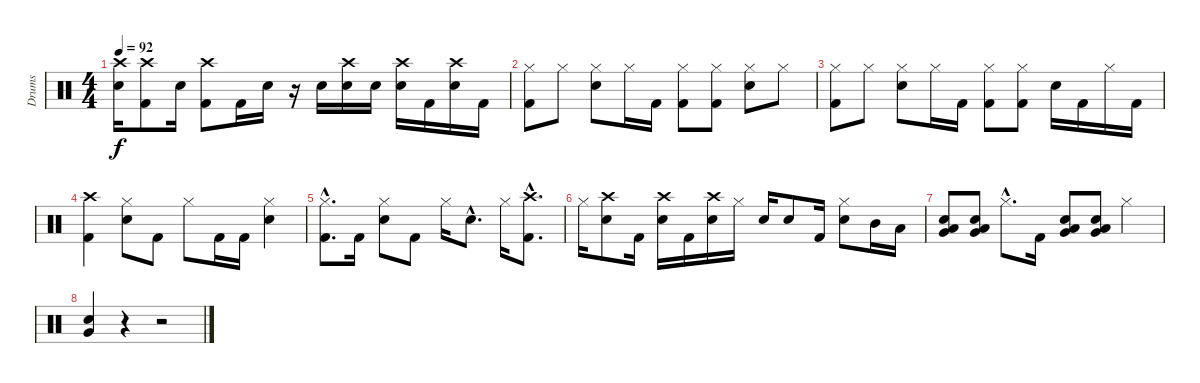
\track ("Drums" "Drums") {instrument percussion}
\staff {score}
\articulation defaults
\ts (4 4)
\tempo 92
\clef neutral
\ks c
("Crash high (hit)" "Electric Snare (hit)").16{dy f} ("Crash high (hit)" "Kick (hit) 2").8 "Electric Snare (hit)".16 ("Crash high (hit)" "Kick (hit) 2").8 "Kick (hit) 2".16 "Electric Snare (hit)".16 r.16 "Electric Snare (hit)".16 ("Crash high (hit)" "Electric Snare (hit)").16 "Electric Snare (hit)".16 ("Crash high (hit)" "Electric Snare (hit)").16 "Kick (hit) 2".16 ("Crash high (hit)" "Electric Snare (hit)").16 "Kick (hit) 2".16 |
("Hi-Hat (closed)" "Kick (hit) 2").8 "Hi-Hat (closed)".8 ("Hi-Hat (closed)" "Electric Snare (hit)").8 "Hi-Hat (closed)".16 "Kick (hit) 2".16 ("Hi-Hat (closed)" "Kick (hit) 2").8 ("Hi-Hat (closed)" "Kick (hit) 2").8 ("Hi-Hat (closed)" "Electric Snare (hit)").8 "Hi-Hat (closed)".8 |
("Hi-Hat (closed)" "Kick (hit) 2").8 "Hi-Hat (closed)".8 ("Hi-Hat (closed)" "Electric Snare (hit)").8 "Hi-Hat (closed)".16 "Kick (hit) 2".16 ("Hi-Hat (closed)" "Kick (hit) 2").8 ("Hi-Hat (closed)" "Kick (hit) 2").8 "Electric Snare (hit)".16 "Kick (hit) 2".16 "Hi-Hat (closed)".16 "Kick (hit) 2".16 |
("Crash high (hit)" "Kick (hit) 2").4 ("Hi-Hat (closed)" "Electric Snare (hit)").8 "Kick (hit) 2".8 "Hi-Hat (closed)".8 "Kick (hit) 2".16 "Kick (hit) 2".16 ("Hi-Hat (closed)" "Electric Snare (hit)").4 |
("Hi-Hat (closed)"{hac} "Kick (hit) 2"{hac}).8{d} "Kick (hit) 2".16 ("Hi-Hat (closed)" "Electric Snare (hit)").8 "Kick (hit) 2".8 "Hi-Hat (closed)".16 "Electric Snare (hit)"{hac}.8{d} "Hi-Hat (closed)".16 ("Crash high (hit)"{hac} "Kick (hit) 2"{hac}).8{d} |
"Hi-Hat (closed)".16 ("Crash high (hit)" "Electric Snare (hit)").8 "Kick (hit) 2".16 ("Crash high (hit)" "Electric Snare (hit)").16 "Kick (hit) 2".16 ("Crash high (hit)" "Electric Snare (hit)").16 "Hi-Hat (closed)".16 "Electric Snare (hit)".16 "Electric Snare (hit)".8 "Kick (hit) 2".16 ("Hi-Hat (closed)" "Electric Snare (hit)").8 "Mid Tom (hit)".16 "Low Tom (hit)".16 |
("Low Tom (hit)" "Electric Snare (hit)" "Very Low Tom (hit)").8 ("Low Tom (hit)" "Electric Snare (hit)" "Very Low Tom (hit)").8 "Hi-Hat (closed)"{hac}.8{d} "Kick (hit) 2".16 ("Low Tom (hit)" "Electric Snare (hit)" "Very Low Tom (hit)").8 ("Low Tom (hit)" "Electric Snare (hit)" "Very Low Tom (hit)").8 "Hi-Hat (closed)".4 |
("Electric Snare (hit)" "Very Low Tom (hit)").4 r.4 r.2
